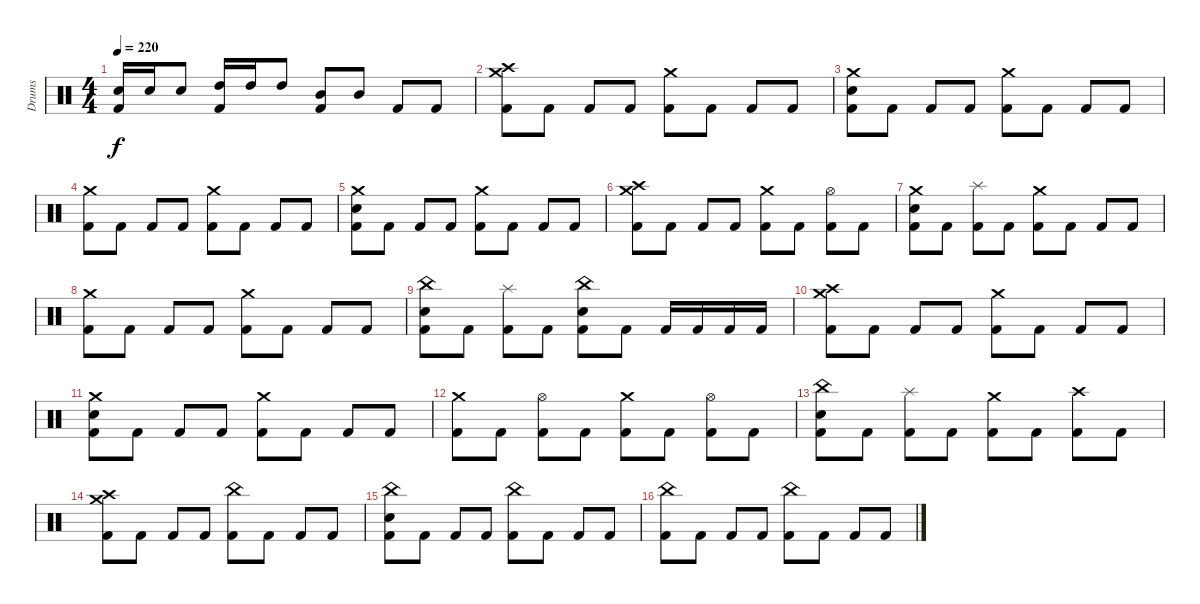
\track ("Drums" "Drums") {instrument percussion}
\staff
\articulation defaults
\ts (4 4)
\tempo 220
\clef neutral
\ks c
("Electric Snare (hit)" "Kick (hit) 2").16{dy f} "Electric Snare (hit)".16 "Electric Snare (hit)".8 ("High Tom (hit)" "Kick (hit) 2").16 "High Tom (hit)".16 "High Tom (hit)".8 ("Mid Tom (hit)" "Kick (hit) 2").8 "Mid Tom (hit)".8 "Kick (hit) 2".8 "Kick (hit) 2".8 |
("Crash medium (hit)" "Crash high (hit)" "Kick (hit) 2").8 "Kick (hit) 2".8 "Kick (hit) 2".8 "Kick (hit) 2".8 ("Crash medium (hit)" "Kick (hit) 2").8 "Kick (hit) 2".8 "Kick (hit) 2".8 "Kick (hit) 2".8 |
("Crash medium (hit)" "Electric Snare (hit)" "Kick (hit) 2").8 "Kick (hit) 2".8 "Kick (hit) 2".8 "Kick (hit) 2".8 ("Crash medium (hit)" "Kick (hit) 2").8 "Kick (hit) 2".8 "Kick (hit) 2".8 "Kick (hit) 2".8 |
("Crash medium (hit)" "Kick (hit) 2").8 "Kick (hit) 2".8 "Kick (hit) 2".8 "Kick (hit) 2".8 ("Crash medium (hit)" "Kick (hit) 2").8 "Kick (hit) 2".8 "Kick (hit) 2".8 "Kick (hit) 2".8 |
("Crash medium (hit)" "Electric Snare (hit)" "Kick (hit) 2").8 "Kick (hit) 2".8 "Kick (hit) 2".8 "Kick (hit) 2".8 ("Crash medium (hit)" "Kick (hit) 2").8 "Kick (hit) 2".8 "Kick (hit) 2".8 "Kick (hit) 2".8 |
("Crash medium (hit)" "Crash high (hit)" "Kick (hit) 2").8 "Kick (hit) 2".8 "Kick (hit) 2".8 "Kick (hit) 2".8 ("Crash medium (hit)" "Kick (hit) 2").8 "Kick (hit) 2".8 ("Hi-Hat (open)" "Kick (hit) 2").8 "Kick (hit) 2".8 |
("Crash medium (hit)" "Electric Snare (hit)" "Kick (hit) 2").8 "Kick (hit) 2".8 ("Splash (hit)" "Kick (hit) 2").8 "Kick (hit) 2".8 ("Crash medium (hit)" "Kick (hit) 2").8 "Kick (hit) 2".8 "Kick (hit) 2".8 "Kick (hit) 2".8 |
("Crash medium (hit)" "Kick (hit) 2").8 "Kick (hit) 2".8 "Kick (hit) 2".8 "Kick (hit) 2".8 ("Crash medium (hit)" "Kick (hit) 2").8 "Kick (hit) 2".8 "Kick (hit) 2".8 "Kick (hit) 2".8 |
("China (hit)" "Electric Snare (hit)" "Kick (hit) 2").8 "Kick (hit) 2".8 ("Splash (hit)" "Kick (hit) 2").8 "Kick (hit) 2".8 ("China (hit)" "Electric Snare (hit)" "Kick (hit) 2").8 "Kick (hit) 2".8 "Kick (hit) 2".16 "Kick (hit) 2".16 "Kick (hit) 2".16 "Kick (hit) 2".16 |
("Crash medium (hit)" "Crash high (hit)" "Kick (hit) 2").8 "Kick (hit) 2".8 "Kick (hit) 2".8 "Kick (hit) 2".8 ("Crash medium (hit)" "Kick (hit) 2").8 "Kick (hit) 2".8 "Kick (hit) 2".8 "Kick (hit) 2".8 |
("Crash medium (hit)" "Electric Snare (hit)" "Kick (hit) 2").8 "Kick (hit) 2".8 "Kick (hit) 2".8 "Kick (hit) 2".8 ("Crash medium (hit)" "Kick (hit) 2").8 "Kick (hit) 2".8 "Kick (hit) 2".8 "Kick (hit) 2".8 |
("Crash medium (hit)" "Kick (hit) 2").8 "Kick (hit) 2".8 ("Hi-Hat (open)" "Kick (hit) 2").8 "Kick (hit) 2".8 ("Crash medium (hit)" "Kick (hit) 2").8 "Kick (hit) 2".8 ("Hi-Hat (open)" "Kick (hit) 2").8 "Kick (hit) 2".8 |
("China (hit)" "Electric Snare (hit)" "Kick (hit) 2").8 "Kick (hit) 2".8 ("Splash (hit)" "Kick (hit) 2").8 "Kick (hit) 2".8 ("Crash medium (hit)" "Kick (hit) 2").8 "Kick (hit) 2".8 ("Crash high (hit)" "Kick (hit) 2").8 "Kick (hit) 2".8 |
("Crash medium (hit)" "Crash high (hit)" "Kick (hit) 2").8 "Kick (hit) 2".8 "Kick (hit) 2".8 "Kick (hit) 2".8 ("China (hit)" "Kick (hit) 2").8 "Kick (hit) 2".8 "Kick (hit) 2".8 "Kick (hit) 2".8 |
("China (hit)" "Electric Snare (hit)" "Kick (hit) 2").8 "Kick (hit) 2".8 "Kick (hit) 2".8 "Kick (hit) 2".8 ("China (hit)" "Kick (hit) 2").8 "Kick (hit) 2".8 "Kick (hit) 2".8 "Kick (hit) 2".8 |
("China (hit)" "Kick (hit) 2").8 "Kick (hit) 2".8 "Kick (hit) 2".8 "Kick (hit) 2".8 ("China (hit)" "Kick (hit) 2").8 "Kick (hit) 2".8 "Kick (hit) 2".8 "Kick (hit) 2".8
